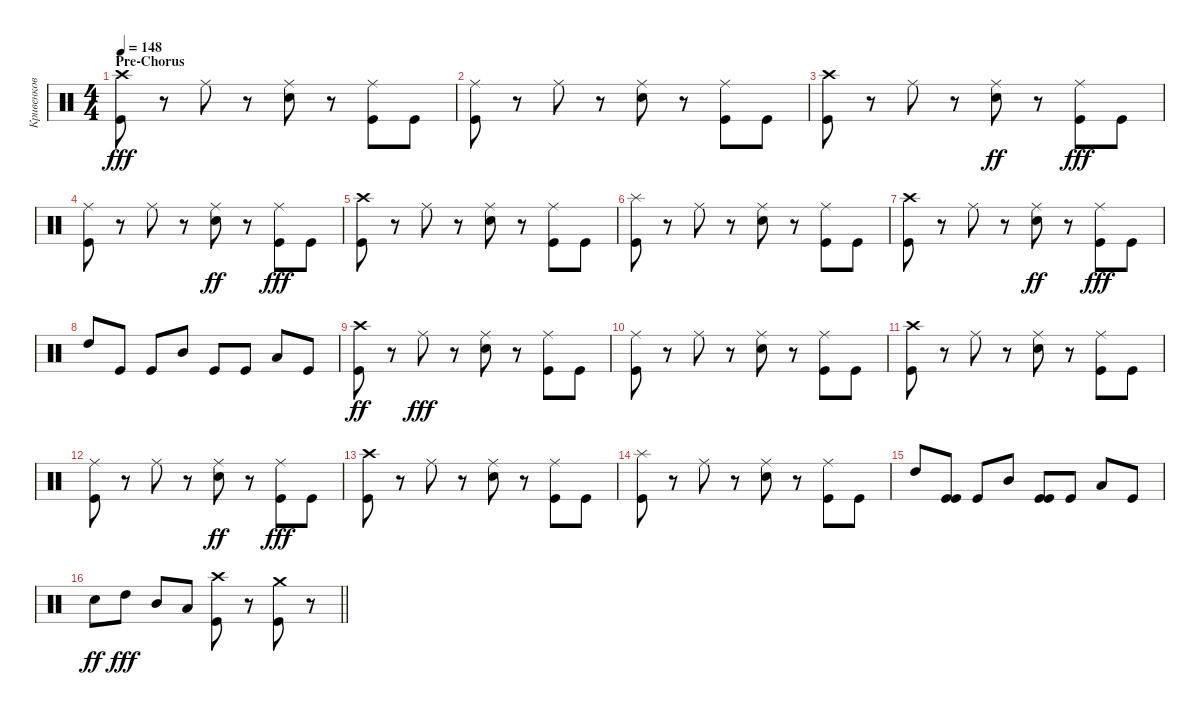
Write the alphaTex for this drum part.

\track ("Кривенков" "Кривенков") {instrument percussion}
\staff {score}
\articulation defaults
\ts (4 4)
\section ("" "Pre-Chorus ")
\tempo 148
\clef neutral
\ks c
("Crash high (hit)" "Kick (hit)").8{dy fff} r.8 "Ride (middle)".8 r.8 ("Snare (hit) 2" "Ride (middle)").8 r.8 ("Kick (hit)" "Ride (middle)").8 "Kick (hit)".8 |
("Ride (middle)" "Kick (hit)").8 r.8 "Ride (middle)".8 r.8 ("Snare (hit) 2" "Ride (middle)").8 r.8 ("Kick (hit)" "Ride (middle)").8 "Kick (hit)".8 |
("Crash high (hit)" "Kick (hit)").8 r.8 "Ride (middle)".8 r.8 ("Ride (middle)" "Snare (hit) 2").8{dy ff} r.8 ("Kick (hit)" "Ride (middle)").8{dy fff} "Kick (hit)".8 |
("Ride (middle)" "Kick (hit)").8 r.8 "Ride (middle)".8 r.8 ("Ride (middle)" "Snare (hit) 2").8{dy ff} r.8 ("Kick (hit)" "Ride (middle)").8{dy fff} "Kick (hit)".8 |
("Crash high (hit)" "Kick (hit)").8 r.8 "Ride (middle)".8 r.8 ("Snare (hit) 2" "Ride (middle)").8 r.8 ("Kick (hit)" "Ride (middle)").8 "Kick (hit)".8 |
("Splash (hit)" "Kick (hit)").8 r.8 "Ride (middle)".8 r.8 ("Snare (hit) 2" "Ride (middle)").8 r.8 ("Kick (hit)" "Ride (middle)").8 "Kick (hit)".8 |
("Crash high (hit)" "Kick (hit)").8 r.8 "Ride (middle)".8 r.8 ("Ride (middle)" "Snare (hit) 2").8{dy ff} r.8 ("Kick (hit)" "Ride (middle)").8{dy fff} "Kick (hit)".8 |
"High Tom (hit)".8 "Kick (hit)".8 "Kick (hit)".8 "Mid Tom (hit)".8 "Kick (hit)".8 "Kick (hit)".8 "Low Tom (hit)".8 "Kick (hit)".8 |
("Kick (hit)" "Crash high (hit)").8{dy ff} r.8 "Ride (middle)".8{dy fff} r.8 ("Snare (hit) 2" "Ride (middle)").8 r.8 ("Ride (middle)" "Kick (hit)").8 "Kick (hit)".8 |
("Kick (hit)" "Ride (middle)").8 r.8 "Ride (middle)".8 r.8 ("Snare (hit) 2" "Ride (middle)").8 r.8 ("Ride (middle)" "Kick (hit)").8 "Kick (hit)".8 |
("Crash high (hit)" "Kick (hit)").8 r.8 "Ride (middle)".8 r.8 ("Snare (hit) 2" "Ride (middle)").8 r.8 ("Ride (middle)" "Kick (hit)").8 "Kick (hit)".8 |
("Ride (middle)" "Kick (hit)").8 r.8 "Ride (middle)".8 r.8 ("Ride (middle)" "Snare (hit) 2").8{dy ff} r.8 ("Ride (middle)" "Kick (hit)").8{dy fff} "Kick (hit)".8 |
("Crash high (hit)" "Kick (hit)").8 r.8 "Ride (middle)".8 r.8 ("Snare (hit) 2" "Ride (middle)").8 r.8 ("Kick (hit)" "Ride (middle)").8 "Kick (hit)".8 |
("Splash (hit)" "Kick (hit)").8 r.8 "Ride (middle)".8 r.8 ("Snare (hit) 2" "Ride (middle)").8 r.8 ("Ride (middle)" "Kick (hit)").8 "Kick (hit)".8 |
"High Tom (hit)".8 ("Kick (hit)" "Kick (hit)").8 "Kick (hit)".8 "Mid Tom (hit)".8 ("Kick (hit)" "Kick (hit)").8 "Kick (hit)".8 "Low Tom (hit)".8 "Kick (hit)".8 |
\barLineRight lightlight "Snare (hit) 2".8{dy ff} "High Tom (hit)".8{dy fff} "Mid Tom (hit)".8 "Low Tom (hit)".8
("Crash high (hit)" "Kick (hit)").8 r.8 ("Crash medium (hit)" "Kick (hit)").8 r.8
